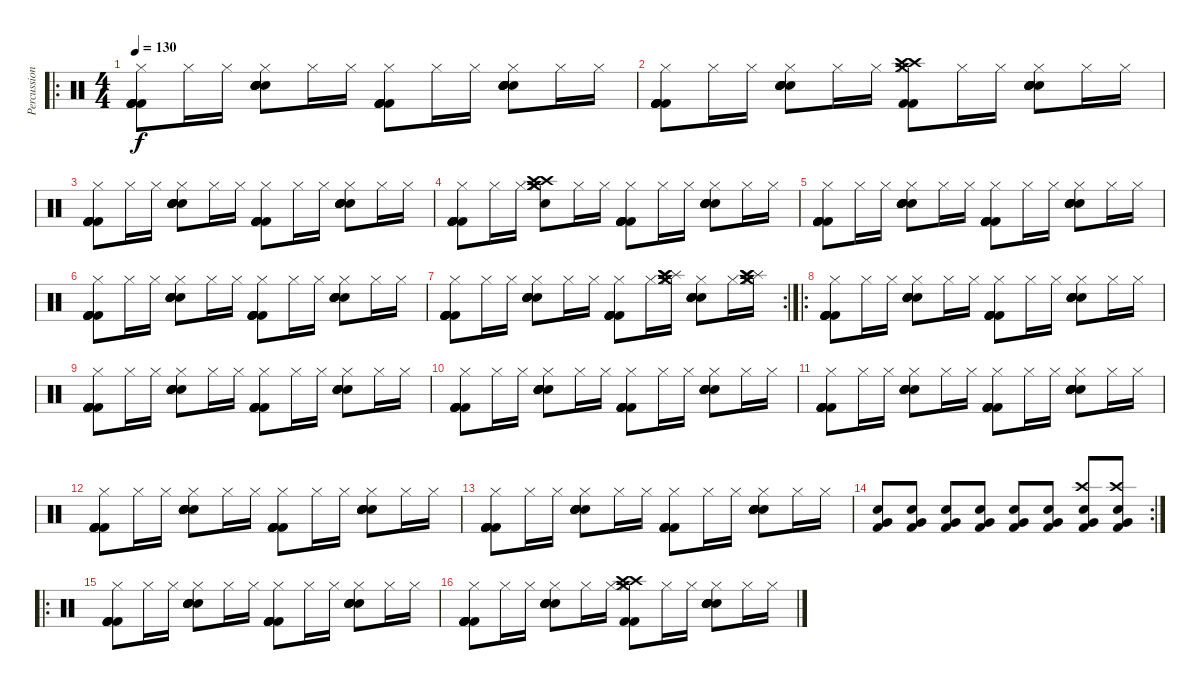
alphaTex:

\track ("Percussion" "Percussion") {instrument percussion}
\staff {score}
\articulation defaults
\ro
\ts (4 4)
\tempo 130
\clef neutral
\ks c
("Hi-Hat (closed)" "Kick (hit) 2" "Kick (hit) 2" "Kick (hit) 2" "Kick (hit) 2" "Kick (hit) 2").8{dy f} "Hi-Hat (closed)".16 "Hi-Hat (closed)".16 ("Hi-Hat (closed)" "Electric Snare (hit)" "Snare (hit) 2" "Snare (hit) 2" "Electric Snare (hit)" "Electric Snare (hit)").8 "Hi-Hat (closed)".16 "Hi-Hat (closed)".16 ("Hi-Hat (closed)" "Kick (hit) 2" "Kick (hit) 2" "Kick (hit) 2" "Kick (hit) 2" "Kick (hit) 2").8 "Hi-Hat (closed)".16 "Hi-Hat (closed)".16 ("Hi-Hat (closed)" "Snare (hit) 2" "Snare (hit) 2" "Electric Snare (hit)" "Electric Snare (hit)" "Electric Snare (hit)").8 "Hi-Hat (closed)".16 "Hi-Hat (closed)".16 |
("Hi-Hat (closed)" "Kick (hit) 2" "Kick (hit) 2" "Kick (hit) 2" "Kick (hit) 2" "Kick (hit) 2").8 "Hi-Hat (closed)".16 "Hi-Hat (closed)".16 ("Hi-Hat (closed)" "Electric Snare (hit)" "Snare (hit) 2" "Snare (hit) 2" "Electric Snare (hit)" "Electric Snare (hit)").8 "Hi-Hat (closed)".16 "Hi-Hat (closed)".16 ("Hi-Hat (closed)" "Kick (hit) 2" "Kick (hit) 2" "Crash high (hit)" "Crash medium (hit)" "Crash high (hit)").8 "Hi-Hat (closed)".16 "Hi-Hat (closed)".16 ("Hi-Hat (closed)" "Snare (hit) 2" "Snare (hit) 2" "Electric Snare (hit)" "Electric Snare (hit)" "Electric Snare (hit)").8 "Hi-Hat (closed)".16 "Hi-Hat (closed)".16 |
("Hi-Hat (closed)" "Kick (hit) 2" "Kick (hit) 2" "Kick (hit) 2" "Kick (hit) 2" "Kick (hit) 2").8 "Hi-Hat (closed)".16 "Hi-Hat (closed)".16 ("Hi-Hat (closed)" "Electric Snare (hit)" "Snare (hit) 2" "Snare (hit) 2" "Electric Snare (hit)" "Electric Snare (hit)").8 "Hi-Hat (closed)".16 "Hi-Hat (closed)".16 ("Hi-Hat (closed)" "Kick (hit) 2" "Kick (hit) 2" "Kick (hit) 2" "Kick (hit) 2" "Kick (hit) 2").8 "Hi-Hat (closed)".16 "Hi-Hat (closed)".16 ("Hi-Hat (closed)" "Snare (hit) 2" "Snare (hit) 2" "Electric Snare (hit)" "Electric Snare (hit)" "Electric Snare (hit)").8 "Hi-Hat (closed)".16 "Hi-Hat (closed)".16 |
("Hi-Hat (closed)" "Kick (hit) 2" "Kick (hit) 2" "Kick (hit) 2" "Kick (hit) 2" "Kick (hit) 2").8 "Hi-Hat (closed)".16 "Hi-Hat (closed)".16 ("Hi-Hat (closed)" "Electric Snare (hit)" "Crash high (hit)" "Crash high (hit)" "Crash medium (hit)" "Crash medium (hit)").8 "Hi-Hat (closed)".16 "Hi-Hat (closed)".16 ("Hi-Hat (closed)" "Kick (hit) 2" "Kick (hit) 2" "Kick (hit) 2" "Kick (hit) 2" "Kick (hit) 2").8 "Hi-Hat (closed)".16 "Hi-Hat (closed)".16 ("Hi-Hat (closed)" "Snare (hit) 2" "Snare (hit) 2" "Electric Snare (hit)" "Electric Snare (hit)" "Electric Snare (hit)").8 "Hi-Hat (closed)".16 "Hi-Hat (closed)".16 |
("Hi-Hat (closed)" "Kick (hit) 2" "Kick (hit) 2" "Kick (hit) 2" "Kick (hit) 2" "Kick (hit) 2").8 "Hi-Hat (closed)".16 "Hi-Hat (closed)".16 ("Hi-Hat (closed)" "Electric Snare (hit)" "Snare (hit) 2" "Snare (hit) 2" "Electric Snare (hit)" "Electric Snare (hit)").8 "Hi-Hat (closed)".16 "Hi-Hat (closed)".16 ("Hi-Hat (closed)" "Kick (hit) 2" "Kick (hit) 2" "Kick (hit) 2" "Kick (hit) 2" "Kick (hit) 2").8 "Hi-Hat (closed)".16 "Hi-Hat (closed)".16 ("Hi-Hat (closed)" "Snare (hit) 2" "Snare (hit) 2" "Electric Snare (hit)" "Electric Snare (hit)" "Electric Snare (hit)").8 "Hi-Hat (closed)".16 "Hi-Hat (closed)".16 |
("Hi-Hat (closed)" "Kick (hit) 2" "Kick (hit) 2" "Kick (hit) 2" "Kick (hit) 2" "Kick (hit) 2").8 "Hi-Hat (closed)".16 "Hi-Hat (closed)".16 ("Hi-Hat (closed)" "Electric Snare (hit)" "Snare (hit) 2" "Snare (hit) 2" "Electric Snare (hit)" "Electric Snare (hit)").8 "Hi-Hat (closed)".16 "Hi-Hat (closed)".16 ("Hi-Hat (closed)" "Kick (hit) 2" "Kick (hit) 2" "Kick (hit) 2" "Kick (hit) 2" "Kick (hit) 2").8 "Hi-Hat (closed)".16 "Hi-Hat (closed)".16 ("Hi-Hat (closed)" "Snare (hit) 2" "Snare (hit) 2" "Electric Snare (hit)" "Electric Snare (hit)" "Electric Snare (hit)").8 "Hi-Hat (closed)".16 "Hi-Hat (closed)".16 |
\rc 2
("Hi-Hat (closed)" "Kick (hit) 2" "Kick (hit) 2" "Kick (hit) 2" "Kick (hit) 2" "Kick (hit) 2").8 "Hi-Hat (closed)".16 "Hi-Hat (closed)".16 ("Hi-Hat (closed)" "Electric Snare (hit)" "Snare (hit) 2" "Snare (hit) 2" "Electric Snare (hit)" "Electric Snare (hit)").8 "Hi-Hat (closed)".16 "Hi-Hat (closed)".16 ("Hi-Hat (closed)" "Kick (hit) 2" "Kick (hit) 2" "Kick (hit) 2" "Kick (hit) 2" "Kick (hit) 2").8 "Hi-Hat (closed)".16 ("Hi-Hat (closed)" "Splash (hit)" "Crash medium (hit)" "Crash high (hit)" "Crash high (hit)" "Crash medium (hit)").16 ("Hi-Hat (closed)" "Snare (hit) 2" "Snare (hit) 2" "Electric Snare (hit)" "Electric Snare (hit)" "Electric Snare (hit)").8 "Hi-Hat (closed)".16 ("Hi-Hat (closed)" "Splash (hit)" "Crash medium (hit)" "Crash high (hit)" "Crash high (hit)" "Crash medium (hit)").16 |
\ro
("Hi-Hat (closed)" "Kick (hit) 2" "Kick (hit) 2" "Kick (hit) 2" "Kick (hit) 2" "Kick (hit) 2").8 "Hi-Hat (closed)".16 "Hi-Hat (closed)".16 ("Hi-Hat (closed)" "Electric Snare (hit)" "Snare (hit) 2" "Snare (hit) 2" "Electric Snare (hit)" "Electric Snare (hit)").8 "Hi-Hat (closed)".16 "Hi-Hat (closed)".16 ("Hi-Hat (closed)" "Kick (hit) 2" "Kick (hit) 2" "Kick (hit) 2" "Kick (hit) 2" "Kick (hit) 2").8 "Hi-Hat (closed)".16 "Hi-Hat (closed)".16 ("Hi-Hat (closed)" "Snare (hit) 2" "Snare (hit) 2" "Electric Snare (hit)" "Electric Snare (hit)" "Electric Snare (hit)").8 "Hi-Hat (closed)".16 "Hi-Hat (closed)".16 |
("Hi-Hat (closed)" "Kick (hit) 2" "Kick (hit) 2" "Kick (hit) 2" "Kick (hit) 2" "Kick (hit) 2").8 "Hi-Hat (closed)".16 "Hi-Hat (closed)".16 ("Hi-Hat (closed)" "Electric Snare (hit)" "Snare (hit) 2" "Snare (hit) 2" "Electric Snare (hit)" "Electric Snare (hit)").8 "Hi-Hat (closed)".16 "Hi-Hat (closed)".16 ("Hi-Hat (closed)" "Kick (hit) 2" "Kick (hit) 2" "Kick (hit) 2" "Kick (hit) 2" "Kick (hit) 2").8 "Hi-Hat (closed)".16 "Hi-Hat (closed)".16 ("Hi-Hat (closed)" "Snare (hit) 2" "Snare (hit) 2" "Electric Snare (hit)" "Electric Snare (hit)" "Electric Snare (hit)").8 "Hi-Hat (closed)".16 "Hi-Hat (closed)".16 |
("Hi-Hat (closed)" "Kick (hit) 2" "Kick (hit) 2" "Kick (hit) 2" "Kick (hit) 2" "Kick (hit) 2").8 "Hi-Hat (closed)".16 "Hi-Hat (closed)".16 ("Hi-Hat (closed)" "Electric Snare (hit)" "Snare (hit) 2" "Snare (hit) 2" "Electric Snare (hit)" "Electric Snare (hit)").8 "Hi-Hat (closed)".16 "Hi-Hat (closed)".16 ("Hi-Hat (closed)" "Kick (hit) 2" "Kick (hit) 2" "Kick (hit) 2" "Kick (hit) 2" "Kick (hit) 2").8 "Hi-Hat (closed)".16 "Hi-Hat (closed)".16 ("Hi-Hat (closed)" "Snare (hit) 2" "Snare (hit) 2" "Electric Snare (hit)" "Electric Snare (hit)" "Electric Snare (hit)").8 "Hi-Hat (closed)".16 "Hi-Hat (closed)".16 |
("Hi-Hat (closed)" "Kick (hit) 2" "Kick (hit) 2" "Kick (hit) 2" "Kick (hit) 2" "Kick (hit) 2").8 "Hi-Hat (closed)".16 "Hi-Hat (closed)".16 ("Hi-Hat (closed)" "Electric Snare (hit)" "Snare (hit) 2" "Snare (hit) 2" "Electric Snare (hit)" "Electric Snare (hit)").8 "Hi-Hat (closed)".16 "Hi-Hat (closed)".16 ("Hi-Hat (closed)" "Kick (hit) 2" "Kick (hit) 2" "Kick (hit) 2" "Kick (hit) 2" "Kick (hit) 2").8 "Hi-Hat (closed)".16 "Hi-Hat (closed)".16 ("Hi-Hat (closed)" "Snare (hit) 2" "Snare (hit) 2" "Electric Snare (hit)" "Electric Snare (hit)" "Electric Snare (hit)").8 "Hi-Hat (closed)".16 "Hi-Hat (closed)".16 |
("Hi-Hat (closed)" "Kick (hit) 2" "Kick (hit) 2" "Kick (hit) 2" "Kick (hit) 2" "Kick (hit) 2").8 "Hi-Hat (closed)".16 "Hi-Hat (closed)".16 ("Hi-Hat (closed)" "Electric Snare (hit)" "Snare (hit) 2" "Snare (hit) 2" "Electric Snare (hit)" "Electric Snare (hit)").8 "Hi-Hat (closed)".16 "Hi-Hat (closed)".16 ("Hi-Hat (closed)" "Kick (hit) 2" "Kick (hit) 2" "Kick (hit) 2" "Kick (hit) 2" "Kick (hit) 2").8 "Hi-Hat (closed)".16 "Hi-Hat (closed)".16 ("Hi-Hat (closed)" "Snare (hit) 2" "Snare (hit) 2" "Electric Snare (hit)" "Electric Snare (hit)" "Electric Snare (hit)").8 "Hi-Hat (closed)".16 "Hi-Hat (closed)".16 |
("Hi-Hat (closed)" "Kick (hit) 2" "Kick (hit) 2" "Kick (hit) 2" "Kick (hit) 2" "Kick (hit) 2").8 "Hi-Hat (closed)".16 "Hi-Hat (closed)".16 ("Hi-Hat (closed)" "Electric Snare (hit)" "Snare (hit) 2" "Snare (hit) 2" "Electric Snare (hit)" "Electric Snare (hit)").8 "Hi-Hat (closed)".16 "Hi-Hat (closed)".16 ("Hi-Hat (closed)" "Kick (hit) 2" "Kick (hit) 2" "Kick (hit) 2" "Kick (hit) 2" "Kick (hit) 2").8 "Hi-Hat (closed)".16 "Hi-Hat (closed)".16 ("Hi-Hat (closed)" "Snare (hit) 2" "Snare (hit) 2" "Electric Snare (hit)" "Electric Snare (hit)" "Electric Snare (hit)").8 "Hi-Hat (closed)".16 "Hi-Hat (closed)".16 |
\rc 2
("Kick (hit) 2" "Snare (hit) 2" "Very Low Tom (hit)").8 ("Kick (hit) 2" "Snare (hit) 2" "Very Low Tom (hit)").8 ("Kick (hit) 2" "Snare (hit) 2" "Very Low Tom (hit)").8 ("Kick (hit) 2" "Snare (hit) 2" "Very Low Tom (hit)").8 ("Kick (hit) 2" "Snare (hit) 2" "Very Low Tom (hit)").8 ("Kick (hit) 2" "Snare (hit) 2" "Very Low Tom (hit)").8 ("Crash high (hit)" "Kick (hit) 2" "Snare (hit) 2" "Very Low Tom (hit)").8 ("Crash high (hit)" "Kick (hit) 2" "Snare (hit) 2" "Very Low Tom (hit)").8 |
\ro
("Hi-Hat (closed)" "Kick (hit) 2" "Kick (hit) 2" "Kick (hit) 2" "Kick (hit) 2" "Kick (hit) 2").8 "Hi-Hat (closed)".16 "Hi-Hat (closed)".16 ("Hi-Hat (closed)" "Electric Snare (hit)" "Snare (hit) 2" "Snare (hit) 2" "Electric Snare (hit)" "Electric Snare (hit)").8 "Hi-Hat (closed)".16 "Hi-Hat (closed)".16 ("Hi-Hat (closed)" "Kick (hit) 2" "Kick (hit) 2" "Kick (hit) 2" "Kick (hit) 2" "Kick (hit) 2").8 "Hi-Hat (closed)".16 "Hi-Hat (closed)".16 ("Hi-Hat (closed)" "Snare (hit) 2" "Snare (hit) 2" "Electric Snare (hit)" "Electric Snare (hit)" "Electric Snare (hit)").8 "Hi-Hat (closed)".16 "Hi-Hat (closed)".16 |
("Hi-Hat (closed)" "Kick (hit) 2" "Kick (hit) 2" "Kick (hit) 2" "Kick (hit) 2" "Kick (hit) 2").8 "Hi-Hat (closed)".16 "Hi-Hat (closed)".16 ("Hi-Hat (closed)" "Electric Snare (hit)" "Snare (hit) 2" "Snare (hit) 2" "Electric Snare (hit)" "Electric Snare (hit)").8 "Hi-Hat (closed)".16 "Hi-Hat (closed)".16 ("Hi-Hat (closed)" "Kick (hit) 2" "Kick (hit) 2" "Crash high (hit)" "Crash medium (hit)" "Crash high (hit)").8 "Hi-Hat (closed)".16 "Hi-Hat (closed)".16 ("Hi-Hat (closed)" "Snare (hit) 2" "Snare (hit) 2" "Electric Snare (hit)" "Electric Snare (hit)" "Electric Snare (hit)").8 "Hi-Hat (closed)".16 "Hi-Hat (closed)".16
